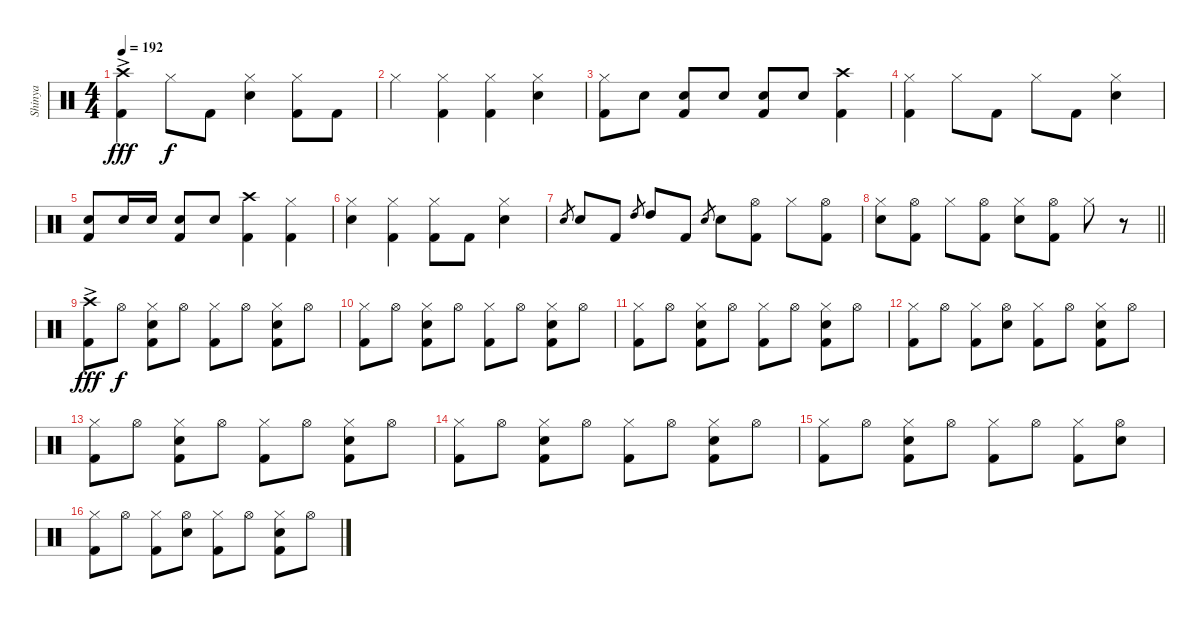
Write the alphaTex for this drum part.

\track ("Shinya" "Shinya") {instrument percussion}
\staff {score}
\articulation defaults
\ts (4 4)
\tempo 192
\clef neutral
\ks c
("Crash high (hit)"{ac} "Kick (hit) 2").4{dy fff} "Hi-Hat (closed)".8{dy f} "Kick (hit) 2".8 ("Hi-Hat (closed)" "Snare (hit) 2").4 ("Hi-Hat (closed)" "Kick (hit) 2").8 "Kick (hit) 2".8 |
"Hi-Hat (closed)".4 ("Hi-Hat (closed)" "Kick (hit) 2").4 ("Hi-Hat (closed)" "Kick (hit) 2").4 ("Hi-Hat (closed)" "Snare (hit) 2").4 |
("Hi-Hat (closed)" "Kick (hit) 2").8 "Snare (hit) 2".8 ("Snare (hit) 2" "Kick (hit) 2").8 "Snare (hit) 2".8 ("Snare (hit) 2" "Kick (hit) 2").8 "Snare (hit) 2".8 ("Crash high (hit)" "Kick (hit) 2").4 |
("Hi-Hat (closed)" "Kick (hit) 2").4 "Hi-Hat (closed)".8 "Kick (hit) 2".8 "Hi-Hat (closed)".8 "Kick (hit) 2".8 ("Hi-Hat (closed)" "Snare (hit) 2").4 |
("Snare (hit) 2" "Kick (hit) 2").8 "Snare (hit) 2".16 "Snare (hit) 2".16 ("Snare (hit) 2" "Kick (hit) 2").8 "Snare (hit) 2".8 ("Crash high (hit)" "Kick (hit) 2").4 ("Hi-Hat (closed)" "Kick (hit) 2").4 |
("Hi-Hat (closed)" "Snare (hit) 2").4 ("Hi-Hat (closed)" "Kick (hit) 2").4 ("Hi-Hat (closed)" "Kick (hit) 2").8 "Kick (hit) 2".8 ("Hi-Hat (closed)" "Snare (hit) 2").4 |
"Snare (hit) 2".8{gr} "Snare (hit) 2".8 "Kick (hit) 2".8 "High Tom (hit)".8{gr} "High Tom (hit)".8 "Kick (hit) 2".8 "Snare (hit) 2".8{gr} "Snare (hit) 2".8 ("Hi-Hat (open)" "Kick (hit) 2").8 "Hi-Hat (closed)".8 ("Hi-Hat (open)" "Kick (hit) 2").8 |
\barLineRight lightlight
("Hi-Hat (closed)" "Snare (hit) 2").8 ("Hi-Hat (open)" "Kick (hit) 2").8 "Hi-Hat (closed)".8 ("Hi-Hat (open)" "Kick (hit) 2").8 ("Hi-Hat (closed)" "Snare (hit) 2").8 ("Hi-Hat (open)" "Kick (hit) 2").8 "Hi-Hat (closed)".8 r.8 |
("Crash high (hit)"{ac} "Kick (hit) 2").8{dy fff} "Hi-Hat (open)".8{dy f} ("Hi-Hat (closed)" "Snare (hit) 2" "Kick (hit) 2").8 "Hi-Hat (open)".8 ("Hi-Hat (closed)" "Kick (hit) 2").8 "Hi-Hat (open)".8 ("Hi-Hat (closed)" "Snare (hit) 2" "Kick (hit) 2").8 "Hi-Hat (open)".8 |
("Hi-Hat (closed)" "Kick (hit) 2").8 "Hi-Hat (open)".8 ("Hi-Hat (closed)" "Snare (hit) 2" "Kick (hit) 2").8 "Hi-Hat (open)".8 ("Hi-Hat (closed)" "Kick (hit) 2").8 "Hi-Hat (open)".8 ("Hi-Hat (closed)" "Snare (hit) 2" "Kick (hit) 2").8 "Hi-Hat (open)".8 |
("Hi-Hat (closed)" "Kick (hit) 2").8 "Hi-Hat (open)".8 ("Hi-Hat (closed)" "Snare (hit) 2" "Kick (hit) 2").8 "Hi-Hat (open)".8 ("Hi-Hat (closed)" "Kick (hit) 2").8 "Hi-Hat (open)".8 ("Hi-Hat (closed)" "Snare (hit) 2" "Kick (hit) 2").8 "Hi-Hat (open)".8 |
("Hi-Hat (closed)" "Kick (hit) 2").8 "Hi-Hat (open)".8 ("Hi-Hat (closed)" "Kick (hit) 2").8 ("Hi-Hat (open)" "Snare (hit) 2").8 ("Hi-Hat (closed)" "Kick (hit) 2").8 "Hi-Hat (open)".8 ("Hi-Hat (closed)" "Snare (hit) 2" "Kick (hit) 2").8 "Hi-Hat (open)".8 |
("Hi-Hat (closed)" "Kick (hit) 2").8 "Hi-Hat (open)".8 ("Hi-Hat (closed)" "Snare (hit) 2" "Kick (hit) 2").8 "Hi-Hat (open)".8 ("Hi-Hat (closed)" "Kick (hit) 2").8 "Hi-Hat (open)".8 ("Hi-Hat (closed)" "Snare (hit) 2" "Kick (hit) 2").8 "Hi-Hat (open)".8 |
("Hi-Hat (closed)" "Kick (hit) 2").8 "Hi-Hat (open)".8 ("Hi-Hat (closed)" "Snare (hit) 2" "Kick (hit) 2").8 "Hi-Hat (open)".8 ("Hi-Hat (closed)" "Kick (hit) 2").8 "Hi-Hat (open)".8 ("Hi-Hat (closed)" "Snare (hit) 2" "Kick (hit) 2").8 "Hi-Hat (open)".8 |
("Hi-Hat (closed)" "Kick (hit) 2").8 "Hi-Hat (open)".8 ("Hi-Hat (closed)" "Snare (hit) 2" "Kick (hit) 2").8 "Hi-Hat (open)".8 ("Hi-Hat (closed)" "Kick (hit) 2").8 "Hi-Hat (open)".8 ("Hi-Hat (closed)" "Kick (hit) 2").8 ("Hi-Hat (open)" "Snare (hit) 2").8 |
("Hi-Hat (closed)" "Kick (hit) 2").8 "Hi-Hat (open)".8 ("Hi-Hat (closed)" "Kick (hit) 2").8 ("Hi-Hat (open)" "Snare (hit) 2").8 ("Hi-Hat (closed)" "Kick (hit) 2").8 "Hi-Hat (open)".8 ("Hi-Hat (closed)" "Snare (hit) 2" "Kick (hit) 2").8 "Hi-Hat (open)".8
